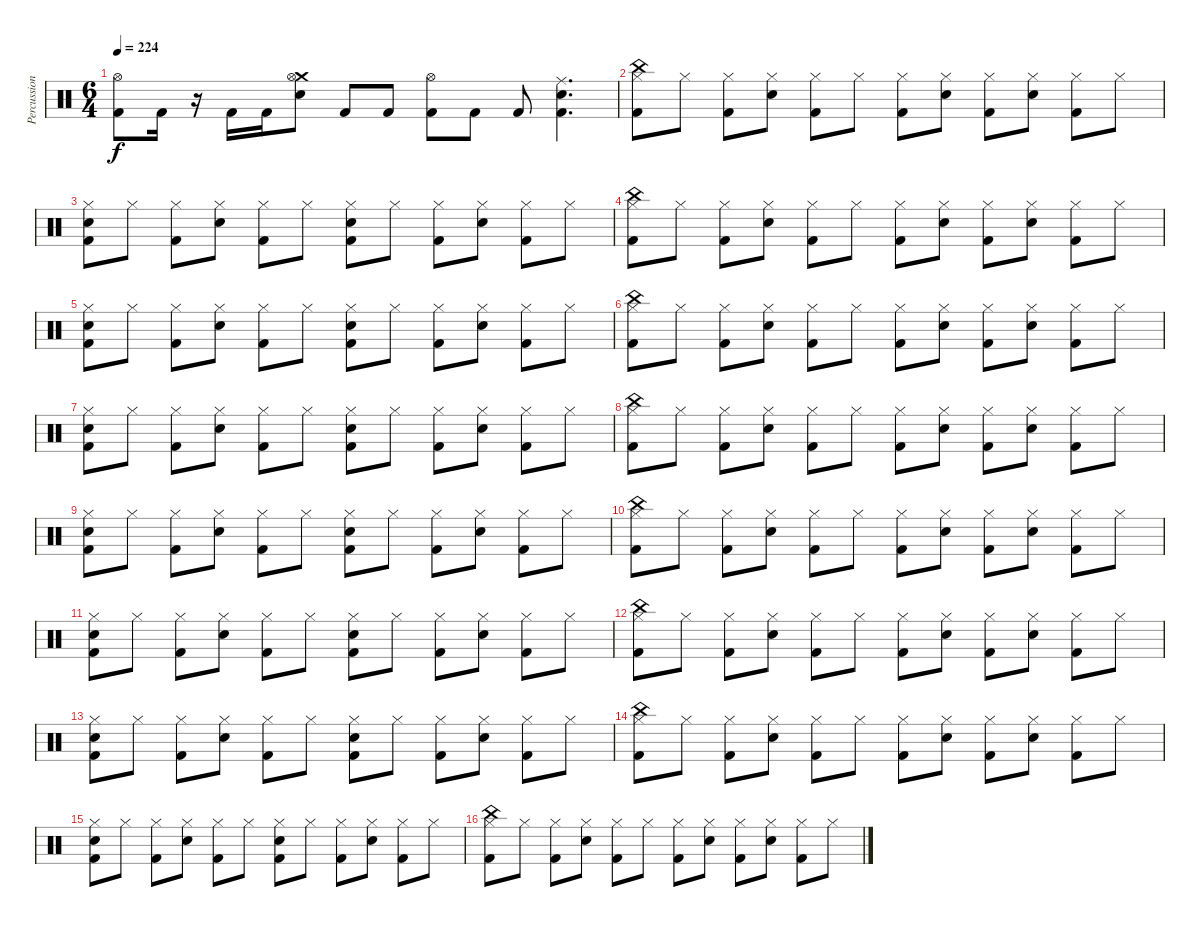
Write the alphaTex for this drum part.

\track ("Percussion" "Percussion") {instrument percussion}
\staff {score}
\articulation defaults
\ts (6 4)
\tempo 224
\clef neutral
\ks c
("Hi-Hat (open)" "Kick (hit) 2").8{dy f} "Kick (hit) 2".16 r.16 "Kick (hit) 2".16 "Kick (hit) 2".16 ("Crash medium (hit)" "Hi-Hat (open)" "Electric Snare (hit)").8 "Kick (hit) 2".8 "Kick (hit) 2".8 ("Hi-Hat (open)" "Kick (hit) 2").8 "Kick (hit) 2".8 "Kick (hit) 2".8 ("Ride (middle)" "Electric Snare (hit)" "Kick (hit) 2").4{d} |
("China (hit)" "Hi-Hat (closed)" "Kick (hit) 2").8 "Hi-Hat (closed)".8 ("Hi-Hat (closed)" "Kick (hit) 2").8 ("Hi-Hat (closed)" "Electric Snare (hit)").8 ("Hi-Hat (closed)" "Kick (hit) 2").8 "Hi-Hat (closed)".8 ("Hi-Hat (closed)" "Kick (hit) 2").8 ("Hi-Hat (closed)" "Electric Snare (hit)").8 ("Hi-Hat (closed)" "Kick (hit) 2").8 ("Hi-Hat (closed)" "Electric Snare (hit)").8 ("Hi-Hat (closed)" "Kick (hit) 2").8 "Hi-Hat (closed)".8 |
("Hi-Hat (closed)" "Electric Snare (hit)" "Kick (hit) 2").8 "Hi-Hat (closed)".8 ("Hi-Hat (closed)" "Kick (hit) 2").8 ("Hi-Hat (closed)" "Electric Snare (hit)").8 ("Hi-Hat (closed)" "Kick (hit) 2").8 "Hi-Hat (closed)".8 ("Hi-Hat (closed)" "Electric Snare (hit)" "Kick (hit) 2").8 "Hi-Hat (closed)".8 ("Hi-Hat (closed)" "Kick (hit) 2").8 ("Hi-Hat (closed)" "Electric Snare (hit)").8 ("Hi-Hat (closed)" "Kick (hit) 2").8 "Hi-Hat (closed)".8 |
("China (hit)" "Hi-Hat (closed)" "Kick (hit) 2").8 "Hi-Hat (closed)".8 ("Hi-Hat (closed)" "Kick (hit) 2").8 ("Hi-Hat (closed)" "Electric Snare (hit)").8 ("Hi-Hat (closed)" "Kick (hit) 2").8 "Hi-Hat (closed)".8 ("Hi-Hat (closed)" "Kick (hit) 2").8 ("Hi-Hat (closed)" "Electric Snare (hit)").8 ("Hi-Hat (closed)" "Kick (hit) 2").8 ("Hi-Hat (closed)" "Electric Snare (hit)").8 ("Hi-Hat (closed)" "Kick (hit) 2").8 "Hi-Hat (closed)".8 |
("Hi-Hat (closed)" "Electric Snare (hit)" "Kick (hit) 2").8 "Hi-Hat (closed)".8 ("Hi-Hat (closed)" "Kick (hit) 2").8 ("Hi-Hat (closed)" "Electric Snare (hit)").8 ("Hi-Hat (closed)" "Kick (hit) 2").8 "Hi-Hat (closed)".8 ("Hi-Hat (closed)" "Electric Snare (hit)" "Kick (hit) 2").8 "Hi-Hat (closed)".8 ("Hi-Hat (closed)" "Kick (hit) 2").8 ("Hi-Hat (closed)" "Electric Snare (hit)").8 ("Hi-Hat (closed)" "Kick (hit) 2").8 "Hi-Hat (closed)".8 |
("China (hit)" "Hi-Hat (closed)" "Kick (hit) 2").8 "Hi-Hat (closed)".8 ("Hi-Hat (closed)" "Kick (hit) 2").8 ("Hi-Hat (closed)" "Electric Snare (hit)").8 ("Hi-Hat (closed)" "Kick (hit) 2").8 "Hi-Hat (closed)".8 ("Hi-Hat (closed)" "Kick (hit) 2").8 ("Hi-Hat (closed)" "Electric Snare (hit)").8 ("Hi-Hat (closed)" "Kick (hit) 2").8 ("Hi-Hat (closed)" "Electric Snare (hit)").8 ("Hi-Hat (closed)" "Kick (hit) 2").8 "Hi-Hat (closed)".8 |
("Hi-Hat (closed)" "Electric Snare (hit)" "Kick (hit) 2").8 "Hi-Hat (closed)".8 ("Hi-Hat (closed)" "Kick (hit) 2").8 ("Hi-Hat (closed)" "Electric Snare (hit)").8 ("Hi-Hat (closed)" "Kick (hit) 2").8 "Hi-Hat (closed)".8 ("Hi-Hat (closed)" "Electric Snare (hit)" "Kick (hit) 2").8 "Hi-Hat (closed)".8 ("Hi-Hat (closed)" "Kick (hit) 2").8 ("Hi-Hat (closed)" "Electric Snare (hit)").8 ("Hi-Hat (closed)" "Kick (hit) 2").8 "Hi-Hat (closed)".8 |
("China (hit)" "Hi-Hat (closed)" "Kick (hit) 2").8 "Hi-Hat (closed)".8 ("Hi-Hat (closed)" "Kick (hit) 2").8 ("Hi-Hat (closed)" "Electric Snare (hit)").8 ("Hi-Hat (closed)" "Kick (hit) 2").8 "Hi-Hat (closed)".8 ("Hi-Hat (closed)" "Kick (hit) 2").8 ("Hi-Hat (closed)" "Electric Snare (hit)").8 ("Hi-Hat (closed)" "Kick (hit) 2").8 ("Hi-Hat (closed)" "Electric Snare (hit)").8 ("Hi-Hat (closed)" "Kick (hit) 2").8 "Hi-Hat (closed)".8 |
("Hi-Hat (closed)" "Electric Snare (hit)" "Kick (hit) 2").8 "Hi-Hat (closed)".8 ("Hi-Hat (closed)" "Kick (hit) 2").8 ("Hi-Hat (closed)" "Electric Snare (hit)").8 ("Hi-Hat (closed)" "Kick (hit) 2").8 "Hi-Hat (closed)".8 ("Hi-Hat (closed)" "Electric Snare (hit)" "Kick (hit) 2").8 "Hi-Hat (closed)".8 ("Hi-Hat (closed)" "Kick (hit) 2").8 ("Hi-Hat (closed)" "Electric Snare (hit)").8 ("Hi-Hat (closed)" "Kick (hit) 2").8 "Hi-Hat (closed)".8 |
("China (hit)" "Hi-Hat (closed)" "Kick (hit) 2").8 "Hi-Hat (closed)".8 ("Hi-Hat (closed)" "Kick (hit) 2").8 ("Hi-Hat (closed)" "Electric Snare (hit)").8 ("Hi-Hat (closed)" "Kick (hit) 2").8 "Hi-Hat (closed)".8 ("Hi-Hat (closed)" "Kick (hit) 2").8 ("Hi-Hat (closed)" "Electric Snare (hit)").8 ("Hi-Hat (closed)" "Kick (hit) 2").8 ("Hi-Hat (closed)" "Electric Snare (hit)").8 ("Hi-Hat (closed)" "Kick (hit) 2").8 "Hi-Hat (closed)".8 |
("Hi-Hat (closed)" "Electric Snare (hit)" "Kick (hit) 2").8 "Hi-Hat (closed)".8 ("Hi-Hat (closed)" "Kick (hit) 2").8 ("Hi-Hat (closed)" "Electric Snare (hit)").8 ("Hi-Hat (closed)" "Kick (hit) 2").8 "Hi-Hat (closed)".8 ("Hi-Hat (closed)" "Electric Snare (hit)" "Kick (hit) 2").8 "Hi-Hat (closed)".8 ("Hi-Hat (closed)" "Kick (hit) 2").8 ("Hi-Hat (closed)" "Electric Snare (hit)").8 ("Hi-Hat (closed)" "Kick (hit) 2").8 "Hi-Hat (closed)".8 |
("China (hit)" "Hi-Hat (closed)" "Kick (hit) 2").8 "Hi-Hat (closed)".8 ("Hi-Hat (closed)" "Kick (hit) 2").8 ("Hi-Hat (closed)" "Electric Snare (hit)").8 ("Hi-Hat (closed)" "Kick (hit) 2").8 "Hi-Hat (closed)".8 ("Hi-Hat (closed)" "Kick (hit) 2").8 ("Hi-Hat (closed)" "Electric Snare (hit)").8 ("Hi-Hat (closed)" "Kick (hit) 2").8 ("Hi-Hat (closed)" "Electric Snare (hit)").8 ("Hi-Hat (closed)" "Kick (hit) 2").8 "Hi-Hat (closed)".8 |
("Hi-Hat (closed)" "Electric Snare (hit)" "Kick (hit) 2").8 "Hi-Hat (closed)".8 ("Hi-Hat (closed)" "Kick (hit) 2").8 ("Hi-Hat (closed)" "Electric Snare (hit)").8 ("Hi-Hat (closed)" "Kick (hit) 2").8 "Hi-Hat (closed)".8 ("Hi-Hat (closed)" "Electric Snare (hit)" "Kick (hit) 2").8 "Hi-Hat (closed)".8 ("Hi-Hat (closed)" "Kick (hit) 2").8 ("Hi-Hat (closed)" "Electric Snare (hit)").8 ("Hi-Hat (closed)" "Kick (hit) 2").8 "Hi-Hat (closed)".8 |
("China (hit)" "Hi-Hat (closed)" "Kick (hit) 2").8 "Hi-Hat (closed)".8 ("Hi-Hat (closed)" "Kick (hit) 2").8 ("Hi-Hat (closed)" "Electric Snare (hit)").8 ("Hi-Hat (closed)" "Kick (hit) 2").8 "Hi-Hat (closed)".8 ("Hi-Hat (closed)" "Kick (hit) 2").8 ("Hi-Hat (closed)" "Electric Snare (hit)").8 ("Hi-Hat (closed)" "Kick (hit) 2").8 ("Hi-Hat (closed)" "Electric Snare (hit)").8 ("Hi-Hat (closed)" "Kick (hit) 2").8 "Hi-Hat (closed)".8 |
("Hi-Hat (closed)" "Electric Snare (hit)" "Kick (hit) 2").8 "Hi-Hat (closed)".8 ("Hi-Hat (closed)" "Kick (hit) 2").8 ("Hi-Hat (closed)" "Electric Snare (hit)").8 ("Hi-Hat (closed)" "Kick (hit) 2").8 "Hi-Hat (closed)".8 ("Hi-Hat (closed)" "Electric Snare (hit)" "Kick (hit) 2").8 "Hi-Hat (closed)".8 ("Hi-Hat (closed)" "Kick (hit) 2").8 ("Hi-Hat (closed)" "Electric Snare (hit)").8 ("Hi-Hat (closed)" "Kick (hit) 2").8 "Hi-Hat (closed)".8 |
("China (hit)" "Hi-Hat (closed)" "Kick (hit) 2").8 "Hi-Hat (closed)".8 ("Hi-Hat (closed)" "Kick (hit) 2").8 ("Hi-Hat (closed)" "Electric Snare (hit)").8 ("Hi-Hat (closed)" "Kick (hit) 2").8 "Hi-Hat (closed)".8 ("Hi-Hat (closed)" "Kick (hit) 2").8 ("Hi-Hat (closed)" "Electric Snare (hit)").8 ("Hi-Hat (closed)" "Kick (hit) 2").8 ("Hi-Hat (closed)" "Electric Snare (hit)").8 ("Hi-Hat (closed)" "Kick (hit) 2").8 "Hi-Hat (closed)".8
